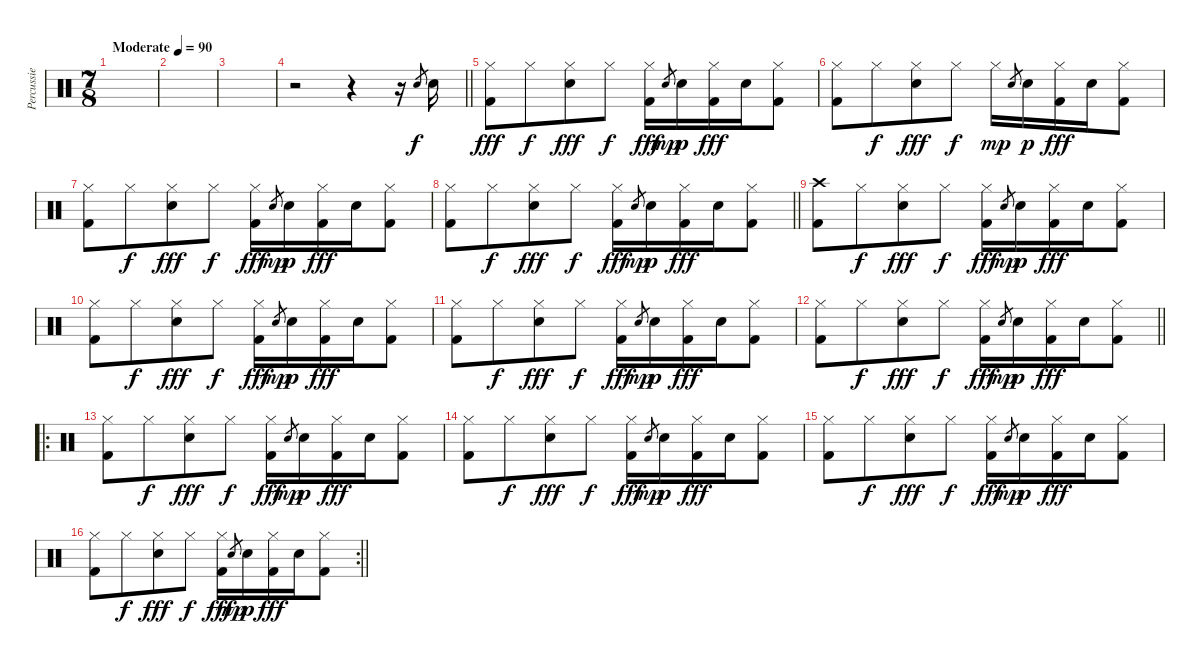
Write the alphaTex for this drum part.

\track ("Percussie" "Percussie") {instrument percussion}
\staff {score}
\articulation defaults
\ts (7 8)
\tempo (90 "Moderate")
\clef neutral
\ks c
|
|
|
\barLineRight lightlight
r.2 r.4 r.16 "Snare (hit) 2".8{gr} "Snare (hit) 2".16 |
("Hi-Hat (closed)" "Kick (hit) 2").8{dy fff} "Hi-Hat (closed)".8{dy f} ("Hi-Hat (closed)" "Snare (hit) 2").8{dy fff} "Hi-Hat (closed)".8{dy f} ("Hi-Hat (closed)" "Kick (hit) 2").16{dy fff} "Snare (hit) 2".8{gr dy mp} "Snare (hit) 2".16{dy p} ("Hi-Hat (closed)" "Kick (hit) 2").16{dy fff} "Snare (hit) 2".16 ("Hi-Hat (closed)" "Kick (hit) 2").8 |
("Hi-Hat (closed)" "Kick (hit) 2").8 "Hi-Hat (closed)".8{dy f} ("Hi-Hat (closed)" "Snare (hit) 2").8{dy fff} "Hi-Hat (closed)".8{dy f} "Hi-Hat (closed)".16{dy mp} "Snare (hit) 2".8{gr} "Snare (hit) 2".16{dy p} ("Hi-Hat (closed)" "Kick (hit) 2").16{dy fff} "Snare (hit) 2".16 ("Hi-Hat (closed)" "Kick (hit) 2").8 |
("Hi-Hat (closed)" "Kick (hit) 2").8 "Hi-Hat (closed)".8{dy f} ("Hi-Hat (closed)" "Snare (hit) 2").8{dy fff} "Hi-Hat (closed)".8{dy f} ("Hi-Hat (closed)" "Kick (hit) 2").16{dy fff} "Snare (hit) 2".8{gr dy mp} "Snare (hit) 2".16{dy p} ("Hi-Hat (closed)" "Kick (hit) 2").16{dy fff} "Snare (hit) 2".16 ("Hi-Hat (closed)" "Kick (hit) 2").8 |
\barLineRight lightlight
("Hi-Hat (closed)" "Kick (hit) 2").8 "Hi-Hat (closed)".8{dy f} ("Hi-Hat (closed)" "Snare (hit) 2").8{dy fff} "Hi-Hat (closed)".8{dy f} ("Hi-Hat (closed)" "Kick (hit) 2").16{dy fff} "Snare (hit) 2".8{gr dy mp} "Snare (hit) 2".16{dy p} ("Hi-Hat (closed)" "Kick (hit) 2").16{dy fff} "Snare (hit) 2".16 ("Hi-Hat (closed)" "Kick (hit) 2").8 |
("Crash high (hit)" "Kick (hit) 2").8 "Hi-Hat (closed)".8{dy f} ("Hi-Hat (closed)" "Snare (hit) 2").8{dy fff} "Hi-Hat (closed)".8{dy f} ("Hi-Hat (closed)" "Kick (hit) 2").16{dy fff} "Snare (hit) 2".8{gr dy mp} "Snare (hit) 2".16{dy p} ("Hi-Hat (closed)" "Kick (hit) 2").16{dy fff} "Snare (hit) 2".16 ("Hi-Hat (closed)" "Kick (hit) 2").8 |
("Hi-Hat (closed)" "Kick (hit) 2").8 "Hi-Hat (closed)".8{dy f} ("Hi-Hat (closed)" "Snare (hit) 2").8{dy fff} "Hi-Hat (closed)".8{dy f} ("Hi-Hat (closed)" "Kick (hit) 2").16{dy fff} "Snare (hit) 2".8{gr dy mp} "Snare (hit) 2".16{dy p} ("Hi-Hat (closed)" "Kick (hit) 2").16{dy fff} "Snare (hit) 2".16 ("Hi-Hat (closed)" "Kick (hit) 2").8 |
("Hi-Hat (closed)" "Kick (hit) 2").8 "Hi-Hat (closed)".8{dy f} ("Hi-Hat (closed)" "Snare (hit) 2").8{dy fff} "Hi-Hat (closed)".8{dy f} ("Hi-Hat (closed)" "Kick (hit) 2").16{dy fff} "Snare (hit) 2".8{gr dy mp} "Snare (hit) 2".16{dy p} ("Hi-Hat (closed)" "Kick (hit) 2").16{dy fff} "Snare (hit) 2".16 ("Hi-Hat (closed)" "Kick (hit) 2").8 |
\barLineRight lightlight
("Hi-Hat (closed)" "Kick (hit) 2").8 "Hi-Hat (closed)".8{dy f} ("Hi-Hat (closed)" "Snare (hit) 2").8{dy fff} "Hi-Hat (closed)".8{dy f} ("Hi-Hat (closed)" "Kick (hit) 2").16{dy fff} "Snare (hit) 2".8{gr dy mp} "Snare (hit) 2".16{dy p} ("Hi-Hat (closed)" "Kick (hit) 2").16{dy fff} "Snare (hit) 2".16 ("Hi-Hat (closed)" "Kick (hit) 2").8 |
\ro
("Hi-Hat (closed)" "Kick (hit) 2").8 "Hi-Hat (closed)".8{dy f} ("Hi-Hat (closed)" "Snare (hit) 2").8{dy fff} "Hi-Hat (closed)".8{dy f} ("Hi-Hat (closed)" "Kick (hit) 2").16{dy fff} "Snare (hit) 2".8{gr dy mp} "Snare (hit) 2".16{dy p} ("Hi-Hat (closed)" "Kick (hit) 2").16{dy fff} "Snare (hit) 2".16 ("Hi-Hat (closed)" "Kick (hit) 2").8 |
("Hi-Hat (closed)" "Kick (hit) 2").8 "Hi-Hat (closed)".8{dy f} ("Hi-Hat (closed)" "Snare (hit) 2").8{dy fff} "Hi-Hat (closed)".8{dy f} ("Hi-Hat (closed)" "Kick (hit) 2").16{dy fff} "Snare (hit) 2".8{gr dy mp} "Snare (hit) 2".16{dy p} ("Hi-Hat (closed)" "Kick (hit) 2").16{dy fff} "Snare (hit) 2".16 ("Hi-Hat (closed)" "Kick (hit) 2").8 |
("Hi-Hat (closed)" "Kick (hit) 2").8 "Hi-Hat (closed)".8{dy f} ("Hi-Hat (closed)" "Snare (hit) 2").8{dy fff} "Hi-Hat (closed)".8{dy f} ("Hi-Hat (closed)" "Kick (hit) 2").16{dy fff} "Snare (hit) 2".8{gr dy mp} "Snare (hit) 2".16{dy p} ("Hi-Hat (closed)" "Kick (hit) 2").16{dy fff} "Snare (hit) 2".16 ("Hi-Hat (closed)" "Kick (hit) 2").8 |
\rc 2
\barLineRight lightlight
("Hi-Hat (closed)" "Kick (hit) 2").8 "Hi-Hat (closed)".8{dy f} ("Hi-Hat (closed)" "Snare (hit) 2").8{dy fff} "Hi-Hat (closed)".8{dy f} ("Hi-Hat (closed)" "Kick (hit) 2").16{dy fff} "Snare (hit) 2".8{gr dy mp} "Snare (hit) 2".16{dy p} ("Hi-Hat (closed)" "Kick (hit) 2").16{dy fff} "Snare (hit) 2".16 ("Hi-Hat (closed)" "Kick (hit) 2").8
